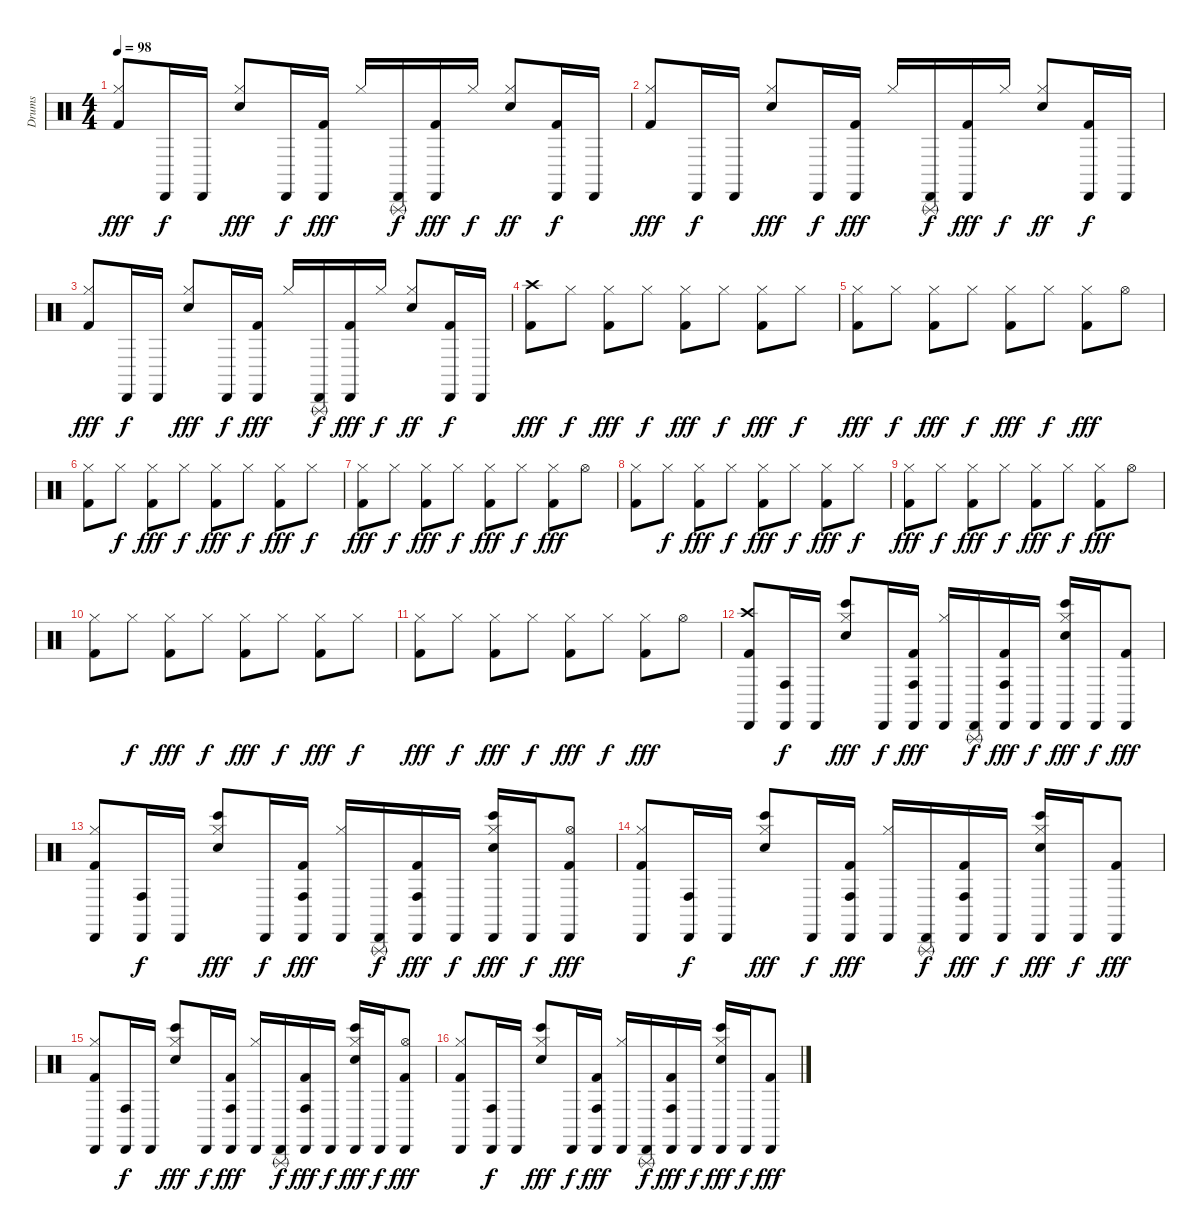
\track ("Drums" "Drums") {instrument percussion}
\staff {score}
\articulation defaults
\ts (4 4)
\tempo 98
\clef neutral
\ks c
("Kick (hit) 2" "Hi-Hat (closed)").8{dy fff} "Cabasa (hit)".16{dy f} "Cabasa (hit)".16 ("Snare (hit) 2" "Hi-Hat (closed)").8{dy fff} "Cabasa (hit)".16{dy f} ("Kick (hit) 2" "Cabasa (hit)").16{dy fff} "Hi-Hat (closed)".16 ("Triangle (rnute)" "Cabasa (hit)").16{dy f} ("Kick (hit) 2" "Cabasa (hit)").16{dy fff} "Hi-Hat (closed)".16{dy f} ("Snare (hit) 2" "Hi-Hat (closed)").8{dy ff} ("Kick (hit) 2" "Cabasa (hit)").16{dy f} "Cabasa (hit)".16 |
("Kick (hit) 2" "Hi-Hat (closed)").8{dy fff} "Cabasa (hit)".16{dy f} "Cabasa (hit)".16 ("Snare (hit) 2" "Hi-Hat (closed)").8{dy fff} "Cabasa (hit)".16{dy f} ("Kick (hit) 2" "Cabasa (hit)").16{dy fff} "Hi-Hat (closed)".16 ("Triangle (rnute)" "Cabasa (hit)").16{dy f} ("Kick (hit) 2" "Cabasa (hit)").16{dy fff} "Hi-Hat (closed)".16{dy f} ("Snare (hit) 2" "Hi-Hat (closed)").8{dy ff} ("Kick (hit) 2" "Cabasa (hit)").16{dy f} "Cabasa (hit)".16 |
("Kick (hit) 2" "Hi-Hat (closed)").8{dy fff} "Cabasa (hit)".16{dy f} "Cabasa (hit)".16 ("Snare (hit) 2" "Hi-Hat (closed)").8{dy fff} "Cabasa (hit)".16{dy f} ("Kick (hit) 2" "Cabasa (hit)").16{dy fff} "Hi-Hat (closed)".16 ("Triangle (rnute)" "Cabasa (hit)").16{dy f} ("Kick (hit) 2" "Cabasa (hit)").16{dy fff} "Hi-Hat (closed)".16{dy f} ("Snare (hit) 2" "Hi-Hat (closed)").8{dy ff} ("Kick (hit) 2" "Cabasa (hit)").16{dy f} "Cabasa (hit)".16 |
("Kick (hit) 2" "Crash high (hit)").8{dy fff} "Hi-Hat (closed)".8{dy f} ("Kick (hit) 2" "Hi-Hat (closed)").8{dy fff} "Hi-Hat (closed)".8{dy f} ("Kick (hit) 2" "Hi-Hat (closed)").8{dy fff} "Hi-Hat (closed)".8{dy f} ("Kick (hit) 2" "Hi-Hat (closed)").8{dy fff} "Hi-Hat (closed)".8{dy f} |
("Kick (hit) 2" "Hi-Hat (closed)").8{dy fff} "Hi-Hat (closed)".8{dy f} ("Kick (hit) 2" "Hi-Hat (closed)").8{dy fff} "Hi-Hat (closed)".8{dy f} ("Kick (hit) 2" "Hi-Hat (closed)").8{dy fff} "Hi-Hat (closed)".8{dy f} ("Kick (hit) 2" "Hi-Hat (closed)").8{dy fff} "Hi-Hat (open)".8 |
("Kick (hit) 2" "Hi-Hat (closed)").8 "Hi-Hat (closed)".8{dy f} ("Kick (hit) 2" "Hi-Hat (closed)").8{dy fff} "Hi-Hat (closed)".8{dy f} ("Kick (hit) 2" "Hi-Hat (closed)").8{dy fff} "Hi-Hat (closed)".8{dy f} ("Kick (hit) 2" "Hi-Hat (closed)").8{dy fff} "Hi-Hat (closed)".8{dy f} |
("Kick (hit) 2" "Hi-Hat (closed)").8{dy fff} "Hi-Hat (closed)".8{dy f} ("Kick (hit) 2" "Hi-Hat (closed)").8{dy fff} "Hi-Hat (closed)".8{dy f} ("Kick (hit) 2" "Hi-Hat (closed)").8{dy fff} "Hi-Hat (closed)".8{dy f} ("Kick (hit) 2" "Hi-Hat (closed)").8{dy fff} "Hi-Hat (open)".8 |
("Kick (hit) 2" "Hi-Hat (closed)").8 "Hi-Hat (closed)".8{dy f} ("Kick (hit) 2" "Hi-Hat (closed)").8{dy fff} "Hi-Hat (closed)".8{dy f} ("Kick (hit) 2" "Hi-Hat (closed)").8{dy fff} "Hi-Hat (closed)".8{dy f} ("Kick (hit) 2" "Hi-Hat (closed)").8{dy fff} "Hi-Hat (closed)".8{dy f} |
("Kick (hit) 2" "Hi-Hat (closed)").8{dy fff} "Hi-Hat (closed)".8{dy f} ("Kick (hit) 2" "Hi-Hat (closed)").8{dy fff} "Hi-Hat (closed)".8{dy f} ("Kick (hit) 2" "Hi-Hat (closed)").8{dy fff} "Hi-Hat (closed)".8{dy f} ("Kick (hit) 2" "Hi-Hat (closed)").8{dy fff} "Hi-Hat (open)".8 |
("Kick (hit) 2" "Hi-Hat (closed)").8 "Hi-Hat (closed)".8{dy f} ("Kick (hit) 2" "Hi-Hat (closed)").8{dy fff} "Hi-Hat (closed)".8{dy f} ("Kick (hit) 2" "Hi-Hat (closed)").8{dy fff} "Hi-Hat (closed)".8{dy f} ("Kick (hit) 2" "Hi-Hat (closed)").8{dy fff} "Hi-Hat (closed)".8{dy f} |
("Kick (hit) 2" "Hi-Hat (closed)").8{dy fff} "Hi-Hat (closed)".8{dy f} ("Kick (hit) 2" "Hi-Hat (closed)").8{dy fff} "Hi-Hat (closed)".8{dy f} ("Kick (hit) 2" "Hi-Hat (closed)").8{dy fff} "Hi-Hat (closed)".8{dy f} ("Kick (hit) 2" "Hi-Hat (closed)").8{dy fff} "Hi-Hat (open)".8 |
("Kick (hit) 2" "Crash high (hit)" "Cabasa (hit)").8 ("Conga high (hit)" "Cabasa (hit)").16{dy f} "Cabasa (hit)".16 ("Bongo High (hit)" "Snare (hit) 2" "Hi-Hat (closed)").8{dy fff} "Cabasa (hit)".16{dy f} ("Conga high (hit)" "Kick (hit) 2" "Cabasa (hit)").16{dy fff} ("Hi-Hat (closed)" "Cabasa (hit)").16 ("Triangle (rnute)" "Cabasa (hit)").16{dy f} ("Conga high (hit)" "Kick (hit) 2" "Cabasa (hit)").16{dy fff} "Cabasa (hit)".16{dy f} ("Bongo High (hit)" "Snare (hit) 2" "Hi-Hat (closed)" "Cabasa (hit)").16{dy fff} "Cabasa (hit)".16{dy f} ("Kick (hit) 2" "Cabasa (hit)").8{dy fff} |
("Kick (hit) 2" "Hi-Hat (closed)" "Cabasa (hit)").8 ("Conga high (hit)" "Cabasa (hit)").16{dy f} "Cabasa (hit)".16 ("Bongo High (hit)" "Snare (hit) 2" "Hi-Hat (closed)").8{dy fff} "Cabasa (hit)".16{dy f} ("Conga high (hit)" "Kick (hit) 2" "Cabasa (hit)").16{dy fff} ("Hi-Hat (closed)" "Cabasa (hit)").16 ("Triangle (rnute)" "Cabasa (hit)").16{dy f} ("Conga high (hit)" "Kick (hit) 2" "Cabasa (hit)").16{dy fff} "Cabasa (hit)".16{dy f} ("Bongo High (hit)" "Snare (hit) 2" "Hi-Hat (closed)" "Cabasa (hit)").16{dy fff} "Cabasa (hit)".16{dy f} ("Kick (hit) 2" "Hi-Hat (open)" "Cabasa (hit)").8{dy fff} |
("Kick (hit) 2" "Cabasa (hit)" "Hi-Hat (closed)").8 ("Conga high (hit)" "Cabasa (hit)").16{dy f} "Cabasa (hit)".16 ("Bongo High (hit)" "Snare (hit) 2" "Hi-Hat (closed)").8{dy fff} "Cabasa (hit)".16{dy f} ("Conga high (hit)" "Kick (hit) 2" "Cabasa (hit)").16{dy fff} ("Hi-Hat (closed)" "Cabasa (hit)").16 ("Triangle (rnute)" "Cabasa (hit)").16{dy f} ("Conga high (hit)" "Kick (hit) 2" "Cabasa (hit)").16{dy fff} "Cabasa (hit)".16{dy f} ("Bongo High (hit)" "Snare (hit) 2" "Hi-Hat (closed)" "Cabasa (hit)").16{dy fff} "Cabasa (hit)".16{dy f} ("Kick (hit) 2" "Cabasa (hit)").8{dy fff} |
("Kick (hit) 2" "Hi-Hat (closed)" "Cabasa (hit)").8 ("Conga high (hit)" "Cabasa (hit)").16{dy f} "Cabasa (hit)".16 ("Bongo High (hit)" "Snare (hit) 2" "Hi-Hat (closed)").8{dy fff} "Cabasa (hit)".16{dy f} ("Conga high (hit)" "Kick (hit) 2" "Cabasa (hit)").16{dy fff} ("Hi-Hat (closed)" "Cabasa (hit)").16 ("Triangle (rnute)" "Cabasa (hit)").16{dy f} ("Conga high (hit)" "Kick (hit) 2" "Cabasa (hit)").16{dy fff} "Cabasa (hit)".16{dy f} ("Bongo High (hit)" "Snare (hit) 2" "Hi-Hat (closed)" "Cabasa (hit)").16{dy fff} "Cabasa (hit)".16{dy f} ("Kick (hit) 2" "Hi-Hat (open)" "Cabasa (hit)").8{dy fff} |
("Kick (hit) 2" "Cabasa (hit)" "Hi-Hat (closed)").8 ("Conga high (hit)" "Cabasa (hit)").16{dy f} "Cabasa (hit)".16 ("Bongo High (hit)" "Snare (hit) 2" "Hi-Hat (closed)").8{dy fff} "Cabasa (hit)".16{dy f} ("Conga high (hit)" "Kick (hit) 2" "Cabasa (hit)").16{dy fff} ("Hi-Hat (closed)" "Cabasa (hit)").16 ("Triangle (rnute)" "Cabasa (hit)").16{dy f} ("Conga high (hit)" "Kick (hit) 2" "Cabasa (hit)").16{dy fff} "Cabasa (hit)".16{dy f} ("Bongo High (hit)" "Snare (hit) 2" "Hi-Hat (closed)" "Cabasa (hit)").16{dy fff} "Cabasa (hit)".16{dy f} ("Kick (hit) 2" "Cabasa (hit)").8{dy fff}
